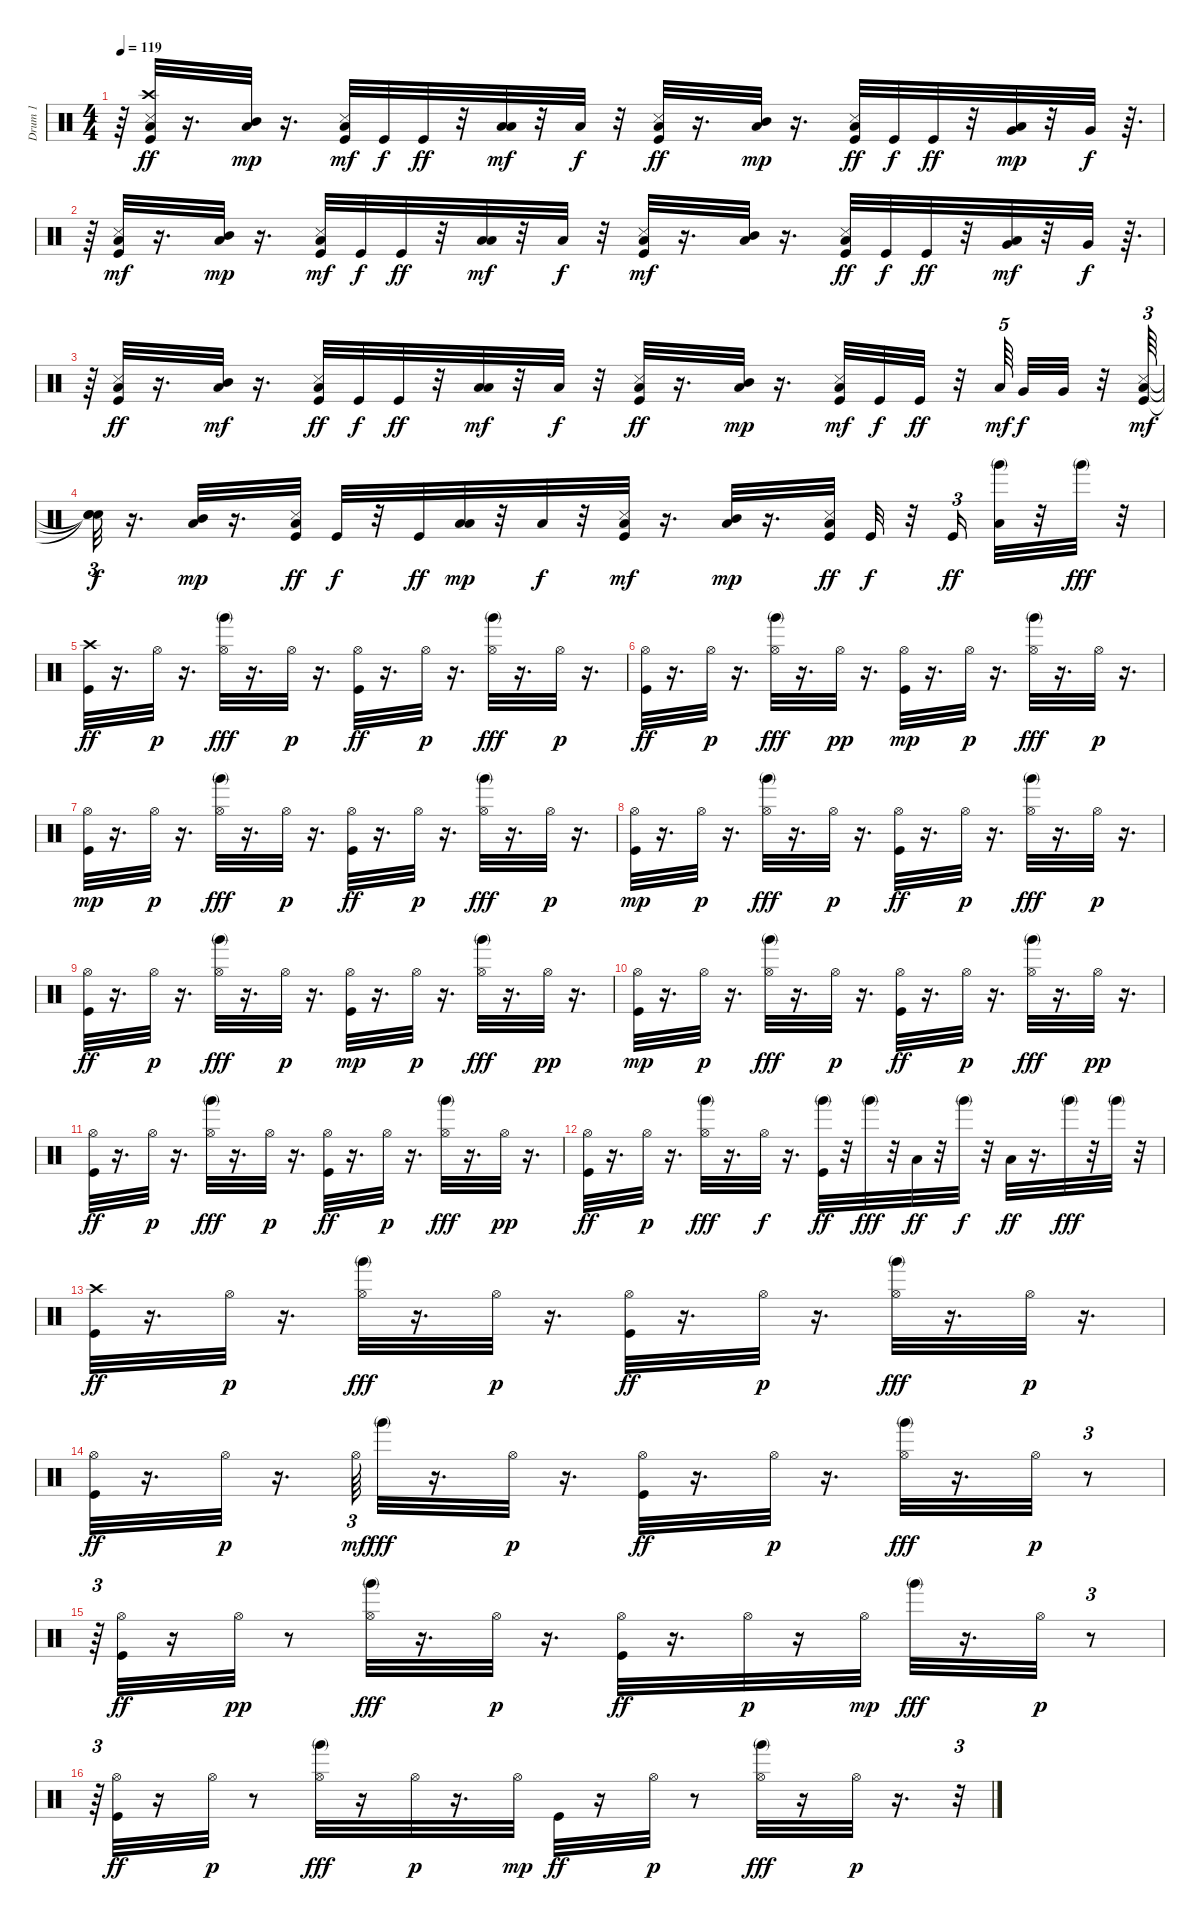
\track ("Drum 1                          " "Drum 1    ") {instrument percussion}
\staff {score}
\articulation defaults
\ts (4 4)
\tempo 119
\clef neutral
\ks c
r.64{dy ff} ("Low Floor Tom (hit)" "Crash high (hit)" "Snare (side stick) 3" "Kick (hit)").32 r.16{d} ("Low Floor Tom (hit)" "Mid Tom (hit)").32{dy mp} r.16{d} ("Low Floor Tom (hit)" "Kick (hit)" "Snare (side stick) 3").32{dy mf} "Kick (hit)".32{dy f} "Kick (hit)".32{dy ff} r.32 ("Low Floor Tom (hit)" "Low Tom (hit)").32{dy mf} r.32 "Low Tom (hit)".32{dy f} r.32 ("Low Floor Tom (hit)" "Kick (hit)" "Snare (side stick) 3").32{dy ff} r.16{d} ("Low Floor Tom (hit)" "Mid Tom (hit)").32{dy mp} r.16{d} ("Snare (side stick) 3" "Low Floor Tom (hit)" "Kick (hit)").32{dy ff} "Kick (hit)".32{dy f} "Kick (hit)".32{dy ff} r.32 ("Low Floor Tom (hit)" "Very Low Tom (hit)").32{dy mp} r.32 "Very Low Tom (hit)".32{dy f} r.64{d} |
r.64 ("Snare (side stick) 3" "Kick (hit)" "Low Floor Tom (hit)").32{dy mf} r.16{d} ("Low Floor Tom (hit)" "Mid Tom (hit)").32{dy mp} r.16{d} ("Kick (hit)" "Low Floor Tom (hit)" "Snare (side stick) 3").32{dy mf} "Kick (hit)".32{dy f} "Kick (hit)".32{dy ff} r.32 ("Low Floor Tom (hit)" "Low Tom (hit)").32{dy mf} r.32 "Low Tom (hit)".32{dy f} r.32 ("Low Floor Tom (hit)" "Kick (hit)" "Snare (side stick) 3").32{dy mf} r.16{d} ("Low Floor Tom (hit)" "Mid Tom (hit)").32 r.16{d} ("Low Floor Tom (hit)" "Snare (side stick) 3" "Kick (hit)").32{dy ff} "Kick (hit)".32{dy f} "Kick (hit)".32{dy ff} r.32 ("Low Floor Tom (hit)" "Very Low Tom (hit)").32{dy mf} r.32 "Very Low Tom (hit)".32{dy f} r.64{d} |
r.64 ("Low Floor Tom (hit)" "Kick (hit)" "Snare (side stick) 3").32{dy ff} r.16{d} ("Mid Tom (hit)" "Low Floor Tom (hit)").32{dy mf} r.16{d} ("Kick (hit)" "Low Floor Tom (hit)" "Snare (side stick) 3").32{dy ff} "Kick (hit)".32{dy f} "Kick (hit)".32{dy ff} r.32 ("Low Floor Tom (hit)" "Low Tom (hit)").32{dy mf} r.32 "Low Tom (hit)".32{dy f} r.32 ("Kick (hit)" "Low Floor Tom (hit)" "Snare (side stick) 3").32{dy ff} r.16{d} ("Low Floor Tom (hit)" "Mid Tom (hit)").32{dy mp} r.16{d} ("Low Floor Tom (hit)" "Kick (hit)" "Snare (side stick) 3").32{dy mf} "Kick (hit)".32{dy f} "Kick (hit)".32{dy ff} r.32 "Low Floor Tom (hit)".64{tu (5 4) dy mf} "Very Low Tom (hit)".32{dy f} "Very Low Tom (hit)".32 r.32 ("Low Floor Tom (hit)" "Kick (hit)" "Snare (side stick) 3").64{tu (3 2) dy mf} |
("Snare (hit)"{t} "Snare (hit)"{t} "Snare (hit)"{t}).32{tu (3 2) dy f} r.16{d} ("Low Floor Tom (hit)" "Mid Tom (hit)").32{dy mp} r.16{d} ("Kick (hit)" "Low Floor Tom (hit)" "Snare (side stick) 3").32{dy ff} "Kick (hit)".32{dy f} r.32 "Kick (hit)".32{dy ff} ("Low Tom (hit)" "Low Floor Tom (hit)").32{dy mp} r.32 "Low Tom (hit)".32{dy f} r.32 ("Low Floor Tom (hit)" "Kick (hit)" "Snare (side stick) 3").32{dy mf} r.16{d} ("Low Floor Tom (hit)" "Mid Tom (hit)").32{dy mp} r.16{d} ("Snare (side stick) 3" "Low Floor Tom (hit)" "Kick (hit)").32{dy ff} "Kick (hit)".32{dy f} r.32 "Kick (hit)".16{tu (3 2) dy ff} ("Low Floor Tom (hit)" "Hand (mute) 2").32 r.32 "Hand (mute) 2".32{dy fff} r.32 |
("Crash high (hit)" "Kick (hit)").32{dy ff} r.16{d} "Hi-Hat (open)".32{dy p} r.16{d} ("Hi-Hat (open)" "Hand (mute) 2").32{dy fff} r.16{d} "Hi-Hat (open)".32{dy p} r.16{d} ("Hi-Hat (open)" "Kick (hit)").32{dy ff} r.16{d} "Hi-Hat (open)".32{dy p} r.16{d} ("Hi-Hat (open)" "Hand (mute) 2").32{dy fff} r.16{d} "Hi-Hat (open)".32{dy p} r.16{d} |
("Hi-Hat (open)" "Kick (hit)").32{dy ff} r.16{d} "Hi-Hat (open)".32{dy p} r.16{d} ("Hi-Hat (open)" "Hand (mute) 2").32{dy fff} r.16{d} "Hi-Hat (open)".32{dy pp} r.16{d} ("Kick (hit)" "Hi-Hat (open)").32{dy mp} r.16{d} "Hi-Hat (open)".32{dy p} r.16{d} ("Hi-Hat (open)" "Hand (mute) 2").32{dy fff} r.16{d} "Hi-Hat (open)".32{dy p} r.16{d} |
("Kick (hit)" "Hi-Hat (open)").32{dy mp} r.16{d} "Hi-Hat (open)".32{dy p} r.16{d} ("Hi-Hat (open)" "Hand (mute) 2").32{dy fff} r.16{d} "Hi-Hat (open)".32{dy p} r.16{d} ("Hi-Hat (open)" "Kick (hit)").32{dy ff} r.16{d} "Hi-Hat (open)".32{dy p} r.16{d} ("Hi-Hat (open)" "Hand (mute) 2").32{dy fff} r.16{d} "Hi-Hat (open)".32{dy p} r.16{d} |
("Kick (hit)" "Hi-Hat (open)").32{dy mp} r.16{d} "Hi-Hat (open)".32{dy p} r.16{d} ("Hi-Hat (open)" "Hand (mute) 2").32{dy fff} r.16{d} "Hi-Hat (open)".32{dy p} r.16{d} ("Hi-Hat (open)" "Kick (hit)").32{dy ff} r.16{d} "Hi-Hat (open)".32{dy p} r.16{d} ("Hi-Hat (open)" "Hand (mute) 2").32{dy fff} r.16{d} "Hi-Hat (open)".32{dy p} r.16{d} |
("Hi-Hat (open)" "Kick (hit)").32{dy ff} r.16{d} "Hi-Hat (open)".32{dy p} r.16{d} ("Hi-Hat (open)" "Hand (mute) 2").32{dy fff} r.16{d} "Hi-Hat (open)".32{dy p} r.16{d} ("Kick (hit)" "Hi-Hat (open)").32{dy mp} r.16{d} "Hi-Hat (open)".32{dy p} r.16{d} ("Hi-Hat (open)" "Hand (mute) 2").32{dy fff} r.16{d} "Hi-Hat (open)".32{dy pp} r.16{d} |
("Kick (hit)" "Hi-Hat (open)").32{dy mp} r.16{d} "Hi-Hat (open)".32{dy p} r.16{d} ("Hi-Hat (open)" "Hand (mute) 2").32{dy fff} r.16{d} "Hi-Hat (open)".32{dy p} r.16{d} ("Hi-Hat (open)" "Kick (hit)").32{dy ff} r.16{d} "Hi-Hat (open)".32{dy p} r.16{d} ("Hi-Hat (open)" "Hand (mute) 2").32{dy fff} r.16{d} "Hi-Hat (open)".32{dy pp} r.16{d} |
("Hi-Hat (open)" "Kick (hit)").32{dy ff} r.16{d} "Hi-Hat (open)".32{dy p} r.16{d} ("Hi-Hat (open)" "Hand (mute) 2").32{dy fff} r.16{d} "Hi-Hat (open)".32{dy p} r.16{d} ("Hi-Hat (open)" "Kick (hit)").32{dy ff} r.16{d} "Hi-Hat (open)".32{dy p} r.16{d} ("Hi-Hat (open)" "Hand (mute) 2").32{dy fff} r.16{d} "Hi-Hat (open)".32{dy pp} r.16{d} |
("Hi-Hat (open)" "Kick (hit)").32{dy ff} r.16{d} "Hi-Hat (open)".32{dy p} r.16{d} ("Hi-Hat (open)" "Hand (mute) 2").32{dy fff} r.16{d} "Hi-Hat (open)".32{dy f} r.16{d} ("Hand (mute) 2" "Kick (hit)").32{dy ff} r.32 "Hand (mute) 2".32{dy fff} r.32 "Low Tom (hit)".32{dy ff} r.32 "Hand (mute) 2".32{dy f} r.32 "Low Floor Tom (hit)".32{dy ff} r.16{d} "Hand (mute) 2".32{dy fff} r.32 "Hand (mute) 2".32 r.32 |
("Crash high (hit)" "Kick (hit)").32{dy ff} r.16{d} "Hi-Hat (open)".32{dy p} r.16{d} ("Hi-Hat (open)" "Hand (mute) 2").32{dy fff} r.16{d} "Hi-Hat (open)".32{dy p} r.16{d} ("Hi-Hat (open)" "Kick (hit)").32{dy ff} r.16{d} "Hi-Hat (open)".32{dy p} r.16{d} ("Hi-Hat (open)" "Hand (mute) 2").32{dy fff} r.16{d} "Hi-Hat (open)".32{dy p} r.16{d} |
("Hi-Hat (open)" "Kick (hit)").32{dy ff} r.16{d} "Hi-Hat (open)".32{dy p} r.16{d} "Hi-Hat (open)".64{tu (3 2) dy mf} "Hand (mute) 2".32{dy fff} r.16{d} "Hi-Hat (open)".32{dy p} r.16{d} ("Hi-Hat (open)" "Kick (hit)").32{dy ff} r.16{d} "Hi-Hat (open)".32{dy p} r.16{d} ("Hi-Hat (open)" "Hand (mute) 2").32{dy fff} r.16{d} "Hi-Hat (open)".32{dy p} r.8{tu (3 2)} |
r.64{tu (3 2)} ("Hi-Hat (open)" "Kick (hit)").32{dy ff} r.16 "Hi-Hat (open)".32{dy pp} r.8 ("Hi-Hat (open)" "Hand (mute) 2").32{dy fff} r.16{d} "Hi-Hat (open)".32{dy p} r.16{d} ("Hi-Hat (open)" "Kick (hit)").32{dy ff} r.16{d} "Hi-Hat (open)".32{dy p} r.16 "Hi-Hat (open)".32{dy mp} "Hand (mute) 2".32{dy fff} r.16{d} "Hi-Hat (open)".32{dy p} r.8{tu (3 2)} |
r.64{tu (3 2)} ("Hi-Hat (open)" "Kick (hit)").32{dy ff} r.16 "Hi-Hat (open)".32{dy p} r.8 ("Hi-Hat (open)" "Hand (mute) 2").32{dy fff} r.16 "Hi-Hat (open)".32{dy p} r.16{d} "Hi-Hat (open)".32{dy mp} "Kick (hit)".32{dy ff} r.16 "Hi-Hat (open)".32{dy p} r.8 ("Hi-Hat (open)" "Hand (mute) 2").32{dy fff} r.16 "Hi-Hat (open)".32{dy p} r.16{d} r.32{tu (3 2)}
